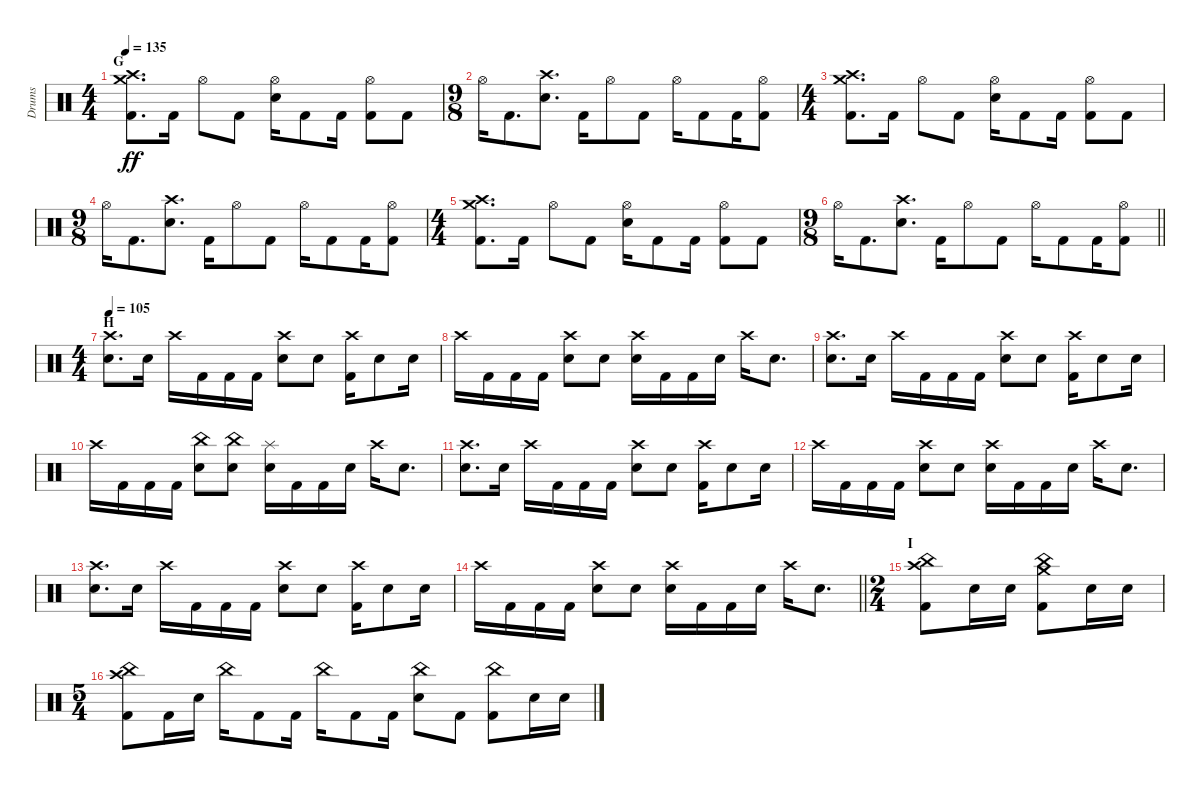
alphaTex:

\track ("Drums" "Drums") {instrument percussion}
\staff {score}
\articulation defaults
\ts (4 4)
\section ("" "G")
\tempo 135
\clef neutral
\ks c
("Crash medium (hit)" "Crash high (hit)" "Kick (hit) 2").8{d dy ff} "Kick (hit) 2".16 "Hi-Hat (open)".8 "Kick (hit) 2".8 ("Hi-Hat (open)" "Electric Snare (hit)").16 "Kick (hit) 2".8 "Kick (hit) 2".16 ("Hi-Hat (open)" "Kick (hit) 2").8 "Kick (hit) 2".8 |
\ts (9 8)
"Hi-Hat (open)".16 "Kick (hit) 2".8{d} ("Crash high (hit)" "Electric Snare (hit)").8{d} "Kick (hit) 2".16 "Hi-Hat (open)".8 "Kick (hit) 2".8 "Hi-Hat (open)".16 "Kick (hit) 2".8 "Kick (hit) 2".16 ("Hi-Hat (open)" "Kick (hit) 2").8 |
\ts (4 4)
("Crash medium (hit)" "Crash high (hit)" "Kick (hit) 2").8{d} "Kick (hit) 2".16 "Hi-Hat (open)".8 "Kick (hit) 2".8 ("Hi-Hat (open)" "Electric Snare (hit)").16 "Kick (hit) 2".8 "Kick (hit) 2".16 ("Hi-Hat (open)" "Kick (hit) 2").8 "Kick (hit) 2".8 |
\ts (9 8)
"Hi-Hat (open)".16 "Kick (hit) 2".8{d} ("Crash high (hit)" "Electric Snare (hit)").8{d} "Kick (hit) 2".16 "Hi-Hat (open)".8 "Kick (hit) 2".8 "Hi-Hat (open)".16 "Kick (hit) 2".8 "Kick (hit) 2".16 ("Hi-Hat (open)" "Kick (hit) 2").8 |
\ts (4 4)
("Crash medium (hit)" "Crash high (hit)" "Kick (hit) 2").8{d} "Kick (hit) 2".16 "Hi-Hat (open)".8 "Kick (hit) 2".8 ("Hi-Hat (open)" "Electric Snare (hit)").16 "Kick (hit) 2".8 "Kick (hit) 2".16 ("Hi-Hat (open)" "Kick (hit) 2").8 "Kick (hit) 2".8 |
\ts (9 8)
\barLineRight lightlight "Hi-Hat (open)".16 "Kick (hit) 2".8{d}
("Crash high (hit)" "Electric Snare (hit)").8{d} "Kick (hit) 2".16 "Hi-Hat (open)".8 "Kick (hit) 2".8 "Hi-Hat (open)".16 "Kick (hit) 2".8 "Kick (hit) 2".16 ("Hi-Hat (open)" "Kick (hit) 2").8 |
\ts (4 4)
\section ("" "H")
\tempo 105
("Crash high (hit)" "Electric Snare (hit)").8{d} "Electric Snare (hit)".16 "Crash high (hit)".16 "Kick (hit) 2".16 "Kick (hit) 2".16 "Kick (hit) 2".16 ("Crash high (hit)" "Electric Snare (hit)").8 "Electric Snare (hit)".8 ("Crash high (hit)" "Kick (hit) 2").16 "Electric Snare (hit)".8 "Electric Snare (hit)".16 |
"Crash high (hit)".16 "Kick (hit) 2".16 "Kick (hit) 2".16 "Kick (hit) 2".16 ("Crash high (hit)" "Electric Snare (hit)").8 "Electric Snare (hit)".8 ("Crash high (hit)" "Electric Snare (hit)").16 "Kick (hit) 2".16 "Kick (hit) 2".16 "Electric Snare (hit)".16 "Crash high (hit)".16 "Electric Snare (hit)".8{d} |
("Crash high (hit)" "Electric Snare (hit)").8{d} "Electric Snare (hit)".16 "Crash high (hit)".16 "Kick (hit) 2".16 "Kick (hit) 2".16 "Kick (hit) 2".16 ("Crash high (hit)" "Electric Snare (hit)").8 "Electric Snare (hit)".8 ("Crash high (hit)" "Kick (hit) 2").16 "Electric Snare (hit)".8 "Electric Snare (hit)".16 |
"Crash high (hit)".16 "Kick (hit) 2".16 "Kick (hit) 2".16 "Kick (hit) 2".16 ("China (hit)" "Electric Snare (hit)").8 ("China (hit)" "Electric Snare (hit)").8 ("Splash (hit)" "Electric Snare (hit)").16 "Kick (hit) 2".16 "Kick (hit) 2".16 "Electric Snare (hit)".16 "Crash high (hit)".16 "Electric Snare (hit)".8{d} |
("Crash high (hit)" "Electric Snare (hit)").8{d} "Electric Snare (hit)".16 "Crash high (hit)".16 "Kick (hit) 2".16 "Kick (hit) 2".16 "Kick (hit) 2".16 ("Crash high (hit)" "Electric Snare (hit)").8 "Electric Snare (hit)".8 ("Crash high (hit)" "Kick (hit) 2").16 "Electric Snare (hit)".8 "Electric Snare (hit)".16 |
"Crash high (hit)".16 "Kick (hit) 2".16 "Kick (hit) 2".16 "Kick (hit) 2".16 ("Crash high (hit)" "Electric Snare (hit)").8 "Electric Snare (hit)".8 ("Crash high (hit)" "Electric Snare (hit)").16 "Kick (hit) 2".16 "Kick (hit) 2".16 "Electric Snare (hit)".16 "Crash high (hit)".16 "Electric Snare (hit)".8{d} |
("Crash high (hit)" "Electric Snare (hit)").8{d} "Electric Snare (hit)".16 "Crash high (hit)".16 "Kick (hit) 2".16 "Kick (hit) 2".16 "Kick (hit) 2".16 ("Crash high (hit)" "Electric Snare (hit)").8 "Electric Snare (hit)".8 ("Crash high (hit)" "Kick (hit) 2").16 "Electric Snare (hit)".8 "Electric Snare (hit)".16 |
\barLineRight lightlight "Crash high (hit)".16 "Kick (hit) 2".16 "Kick (hit) 2".16 "Kick (hit) 2".16
("Crash high (hit)" "Electric Snare (hit)").8 "Electric Snare (hit)".8 ("Crash high (hit)" "Electric Snare (hit)").16 "Kick (hit) 2".16 "Kick (hit) 2".16 "Electric Snare (hit)".16 "Crash high (hit)".16 "Electric Snare (hit)".8{d} |
\ts (2 4)
\section ("" "I")
("Crash high (hit)" "China (hit)" "Kick (hit) 2").8 "Electric Snare (hit)".16 "Electric Snare (hit)".16 ("Crash medium (hit)" "China (hit)" "Kick (hit) 2").8 "Electric Snare (hit)".16 "Electric Snare (hit)".16 |
\ts (5 4)
("Crash high (hit)" "China (hit)" "Kick (hit) 2").8 "Kick (hit) 2".16 "Electric Snare (hit)".16 "China (hit)".16 "Kick (hit) 2".8 "Kick (hit) 2".16 "China (hit)".16 "Kick (hit) 2".8 "Kick (hit) 2".16 ("China (hit)" "Electric Snare (hit)").8 "Kick (hit) 2".8 ("China (hit)" "Kick (hit) 2").8 "Electric Snare (hit)".16 "Electric Snare (hit)".16
